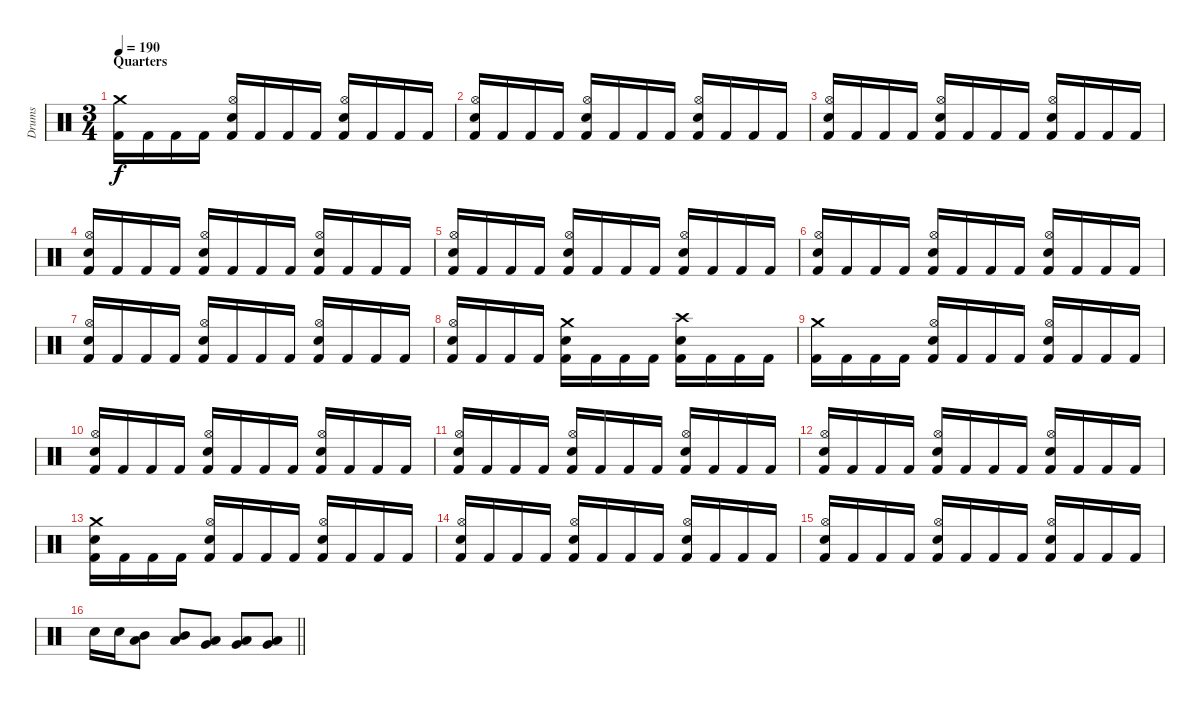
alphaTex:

\track ("Drums" "Drums") {instrument percussion}
\staff {score}
\articulation defaults
\ts (3 4)
\section ("" "Quarters")
\tempo 190
\clef neutral
\ks c
("Crash medium (hit)" "Kick (hit) 2").16{dy f} "Kick (hit) 2".16 "Kick (hit) 2".16 "Kick (hit) 2".16 ("Hi-Hat (open)" "Electric Snare (hit)" "Kick (hit) 2").16 "Kick (hit) 2".16 "Kick (hit) 2".16 "Kick (hit) 2".16 ("Hi-Hat (open)" "Electric Snare (hit)" "Kick (hit) 2").16 "Kick (hit) 2".16 "Kick (hit) 2".16 "Kick (hit) 2".16 |
("Hi-Hat (open)" "Electric Snare (hit)" "Kick (hit) 2").16 "Kick (hit) 2".16 "Kick (hit) 2".16 "Kick (hit) 2".16 ("Hi-Hat (open)" "Electric Snare (hit)" "Kick (hit) 2").16 "Kick (hit) 2".16 "Kick (hit) 2".16 "Kick (hit) 2".16 ("Hi-Hat (open)" "Electric Snare (hit)" "Kick (hit) 2").16 "Kick (hit) 2".16 "Kick (hit) 2".16 "Kick (hit) 2".16 |
("Hi-Hat (open)" "Electric Snare (hit)" "Kick (hit) 2").16 "Kick (hit) 2".16 "Kick (hit) 2".16 "Kick (hit) 2".16 ("Hi-Hat (open)" "Electric Snare (hit)" "Kick (hit) 2").16 "Kick (hit) 2".16 "Kick (hit) 2".16 "Kick (hit) 2".16 ("Hi-Hat (open)" "Electric Snare (hit)" "Kick (hit) 2").16 "Kick (hit) 2".16 "Kick (hit) 2".16 "Kick (hit) 2".16 |
("Hi-Hat (open)" "Electric Snare (hit)" "Kick (hit) 2").16 "Kick (hit) 2".16 "Kick (hit) 2".16 "Kick (hit) 2".16 ("Hi-Hat (open)" "Electric Snare (hit)" "Kick (hit) 2").16 "Kick (hit) 2".16 "Kick (hit) 2".16 "Kick (hit) 2".16 ("Hi-Hat (open)" "Electric Snare (hit)" "Kick (hit) 2").16 "Kick (hit) 2".16 "Kick (hit) 2".16 "Kick (hit) 2".16 |
("Hi-Hat (open)" "Electric Snare (hit)" "Kick (hit) 2").16 "Kick (hit) 2".16 "Kick (hit) 2".16 "Kick (hit) 2".16 ("Hi-Hat (open)" "Electric Snare (hit)" "Kick (hit) 2").16 "Kick (hit) 2".16 "Kick (hit) 2".16 "Kick (hit) 2".16 ("Hi-Hat (open)" "Electric Snare (hit)" "Kick (hit) 2").16 "Kick (hit) 2".16 "Kick (hit) 2".16 "Kick (hit) 2".16 |
("Hi-Hat (open)" "Electric Snare (hit)" "Kick (hit) 2").16 "Kick (hit) 2".16 "Kick (hit) 2".16 "Kick (hit) 2".16 ("Hi-Hat (open)" "Electric Snare (hit)" "Kick (hit) 2").16 "Kick (hit) 2".16 "Kick (hit) 2".16 "Kick (hit) 2".16 ("Hi-Hat (open)" "Electric Snare (hit)" "Kick (hit) 2").16 "Kick (hit) 2".16 "Kick (hit) 2".16 "Kick (hit) 2".16 |
("Hi-Hat (open)" "Electric Snare (hit)" "Kick (hit) 2").16 "Kick (hit) 2".16 "Kick (hit) 2".16 "Kick (hit) 2".16 ("Hi-Hat (open)" "Electric Snare (hit)" "Kick (hit) 2").16 "Kick (hit) 2".16 "Kick (hit) 2".16 "Kick (hit) 2".16 ("Hi-Hat (open)" "Electric Snare (hit)" "Kick (hit) 2").16 "Kick (hit) 2".16 "Kick (hit) 2".16 "Kick (hit) 2".16 |
("Hi-Hat (open)" "Electric Snare (hit)" "Kick (hit) 2").16 "Kick (hit) 2".16 "Kick (hit) 2".16 "Kick (hit) 2".16 ("Crash medium (hit)" "Electric Snare (hit)" "Kick (hit) 2").16 "Kick (hit) 2".16 "Kick (hit) 2".16 "Kick (hit) 2".16 ("Crash high (hit)" "Electric Snare (hit)" "Kick (hit) 2").16 "Kick (hit) 2".16 "Kick (hit) 2".16 "Kick (hit) 2".16 |
("Crash medium (hit)" "Kick (hit) 2").16 "Kick (hit) 2".16 "Kick (hit) 2".16 "Kick (hit) 2".16 ("Hi-Hat (open)" "Electric Snare (hit)" "Kick (hit) 2").16 "Kick (hit) 2".16 "Kick (hit) 2".16 "Kick (hit) 2".16 ("Hi-Hat (open)" "Electric Snare (hit)" "Kick (hit) 2").16 "Kick (hit) 2".16 "Kick (hit) 2".16 "Kick (hit) 2".16 |
("Hi-Hat (open)" "Electric Snare (hit)" "Kick (hit) 2").16 "Kick (hit) 2".16 "Kick (hit) 2".16 "Kick (hit) 2".16 ("Hi-Hat (open)" "Electric Snare (hit)" "Kick (hit) 2").16 "Kick (hit) 2".16 "Kick (hit) 2".16 "Kick (hit) 2".16 ("Hi-Hat (open)" "Electric Snare (hit)" "Kick (hit) 2").16 "Kick (hit) 2".16 "Kick (hit) 2".16 "Kick (hit) 2".16 |
("Hi-Hat (open)" "Electric Snare (hit)" "Kick (hit) 2").16 "Kick (hit) 2".16 "Kick (hit) 2".16 "Kick (hit) 2".16 ("Hi-Hat (open)" "Electric Snare (hit)" "Kick (hit) 2").16 "Kick (hit) 2".16 "Kick (hit) 2".16 "Kick (hit) 2".16 ("Hi-Hat (open)" "Electric Snare (hit)" "Kick (hit) 2").16 "Kick (hit) 2".16 "Kick (hit) 2".16 "Kick (hit) 2".16 |
("Hi-Hat (open)" "Electric Snare (hit)" "Kick (hit) 2").16 "Kick (hit) 2".16 "Kick (hit) 2".16 "Kick (hit) 2".16 ("Hi-Hat (open)" "Electric Snare (hit)" "Kick (hit) 2").16 "Kick (hit) 2".16 "Kick (hit) 2".16 "Kick (hit) 2".16 ("Hi-Hat (open)" "Electric Snare (hit)" "Kick (hit) 2").16 "Kick (hit) 2".16 "Kick (hit) 2".16 "Kick (hit) 2".16 |
("Crash medium (hit)" "Electric Snare (hit)" "Kick (hit) 2").16 "Kick (hit) 2".16 "Kick (hit) 2".16 "Kick (hit) 2".16 ("Hi-Hat (open)" "Electric Snare (hit)" "Kick (hit) 2").16 "Kick (hit) 2".16 "Kick (hit) 2".16 "Kick (hit) 2".16 ("Hi-Hat (open)" "Electric Snare (hit)" "Kick (hit) 2").16 "Kick (hit) 2".16 "Kick (hit) 2".16 "Kick (hit) 2".16 |
("Hi-Hat (open)" "Electric Snare (hit)" "Kick (hit) 2").16 "Kick (hit) 2".16 "Kick (hit) 2".16 "Kick (hit) 2".16 ("Hi-Hat (open)" "Electric Snare (hit)" "Kick (hit) 2").16 "Kick (hit) 2".16 "Kick (hit) 2".16 "Kick (hit) 2".16 ("Hi-Hat (open)" "Electric Snare (hit)" "Kick (hit) 2").16 "Kick (hit) 2".16 "Kick (hit) 2".16 "Kick (hit) 2".16 |
("Hi-Hat (open)" "Electric Snare (hit)" "Kick (hit) 2").16 "Kick (hit) 2".16 "Kick (hit) 2".16 "Kick (hit) 2".16 ("Hi-Hat (open)" "Electric Snare (hit)" "Kick (hit) 2").16 "Kick (hit) 2".16 "Kick (hit) 2".16 "Kick (hit) 2".16 ("Hi-Hat (open)" "Electric Snare (hit)" "Kick (hit) 2").16 "Kick (hit) 2".16 "Kick (hit) 2".16 "Kick (hit) 2".16 |
\barLineRight lightlight "Electric Snare (hit)".16 "Electric Snare (hit)".16
("Mid Tom (hit)" "Low Tom (hit)").8 ("Mid Tom (hit)" "Low Tom (hit)").8 ("Low Tom (hit)" "Very Low Tom (hit)").8 ("Low Tom (hit)" "Very Low Tom (hit)").8 ("Very Low Tom (hit)" "Low Floor Tom (hit)").8
